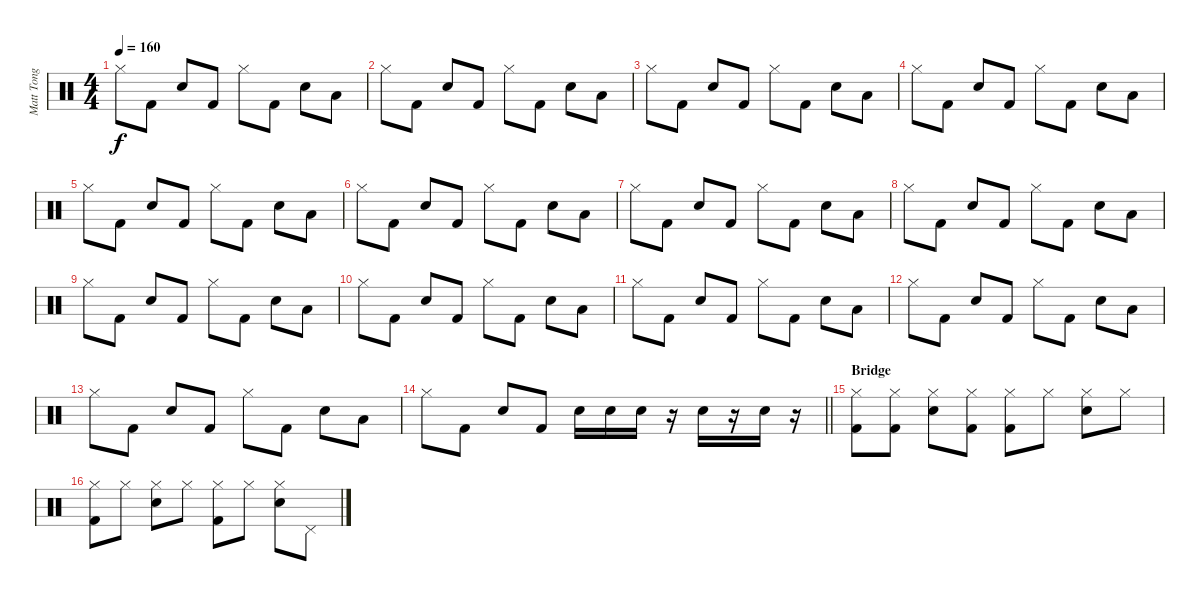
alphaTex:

\track ("Matt Tong" "Matt Tong") {instrument percussion}
\staff {score}
\articulation defaults
\ts (4 4)
\tempo 160
\clef neutral
\ks c "Hi-Hat (closed)".8{dy f} "Kick (hit) 2".8 "Snare (hit) 2".8 "Kick (hit) 2".8 "Hi-Hat (closed)".8 "Kick (hit) 2".8 "Snare (hit) 2".8 "Low Tom (hit)".8
|
"Hi-Hat (closed)".8 "Kick (hit) 2".8 "Snare (hit) 2".8 "Kick (hit) 2".8 "Hi-Hat (closed)".8 "Kick (hit) 2".8 "Snare (hit) 2".8 "Low Tom (hit)".8 |
"Hi-Hat (closed)".8 "Kick (hit) 2".8 "Snare (hit) 2".8 "Kick (hit) 2".8 "Hi-Hat (closed)".8 "Kick (hit) 2".8 "Snare (hit) 2".8 "Low Tom (hit)".8 |
"Hi-Hat (closed)".8 "Kick (hit) 2".8 "Snare (hit) 2".8 "Kick (hit) 2".8 "Hi-Hat (closed)".8 "Kick (hit) 2".8 "Snare (hit) 2".8 "Low Tom (hit)".8 |
"Hi-Hat (closed)".8 "Kick (hit) 2".8 "Snare (hit) 2".8 "Kick (hit) 2".8 "Hi-Hat (closed)".8 "Kick (hit) 2".8 "Snare (hit) 2".8 "Low Tom (hit)".8 |
"Hi-Hat (closed)".8 "Kick (hit) 2".8 "Snare (hit) 2".8 "Kick (hit) 2".8 "Hi-Hat (closed)".8 "Kick (hit) 2".8 "Snare (hit) 2".8 "Low Tom (hit)".8 |
"Hi-Hat (closed)".8 "Kick (hit) 2".8 "Snare (hit) 2".8 "Kick (hit) 2".8 "Hi-Hat (closed)".8 "Kick (hit) 2".8 "Snare (hit) 2".8 "Low Tom (hit)".8 |
"Hi-Hat (closed)".8 "Kick (hit) 2".8 "Snare (hit) 2".8 "Kick (hit) 2".8 "Hi-Hat (closed)".8 "Kick (hit) 2".8 "Snare (hit) 2".8 "Low Tom (hit)".8 |
"Hi-Hat (closed)".8 "Kick (hit) 2".8 "Snare (hit) 2".8 "Kick (hit) 2".8 "Hi-Hat (closed)".8 "Kick (hit) 2".8 "Snare (hit) 2".8 "Low Tom (hit)".8 |
"Hi-Hat (closed)".8 "Kick (hit) 2".8 "Snare (hit) 2".8 "Kick (hit) 2".8 "Hi-Hat (closed)".8 "Kick (hit) 2".8 "Snare (hit) 2".8 "Low Tom (hit)".8 |
"Hi-Hat (closed)".8 "Kick (hit) 2".8 "Snare (hit) 2".8 "Kick (hit) 2".8 "Hi-Hat (closed)".8 "Kick (hit) 2".8 "Snare (hit) 2".8 "Low Tom (hit)".8 |
"Hi-Hat (closed)".8 "Kick (hit) 2".8 "Snare (hit) 2".8 "Kick (hit) 2".8 "Hi-Hat (closed)".8 "Kick (hit) 2".8 "Snare (hit) 2".8 "Low Tom (hit)".8 |
"Hi-Hat (closed)".8 "Kick (hit) 2".8 "Snare (hit) 2".8 "Kick (hit) 2".8 "Hi-Hat (closed)".8 "Kick (hit) 2".8 "Snare (hit) 2".8 "Low Tom (hit)".8 |
\barLineRight lightlight "Hi-Hat (closed)".8 "Kick (hit) 2".8 "Snare (hit) 2".8 "Kick (hit) 2".8 "Snare (hit) 2".16 "Snare (hit) 2".16 "Snare (hit) 2".16
r.16 "Snare (hit) 2".16 r.16 "Snare (hit) 2".16 r.16 |
\section ("" "Bridge")
("Hi-Hat (closed)" "Kick (hit) 2").8 ("Hi-Hat (closed)" "Kick (hit) 2").8 ("Hi-Hat (closed)" "Snare (hit) 2").8 ("Hi-Hat (closed)" "Kick (hit) 2").8 ("Hi-Hat (closed)" "Kick (hit) 2").8 "Hi-Hat (closed)".8 ("Hi-Hat (closed)" "Snare (hit) 2").8 "Hi-Hat (closed)".8 |
("Hi-Hat (closed)" "Kick (hit) 2").8 "Hi-Hat (closed)".8 ("Hi-Hat (closed)" "Snare (hit) 2").8 "Hi-Hat (closed)".8 ("Hi-Hat (closed)" "Kick (hit) 2").8 "Hi-Hat (closed)".8 ("Hi-Hat (closed)" "Snare (hit) 2").8 "Pedal Hi-Hat (hit)".8
